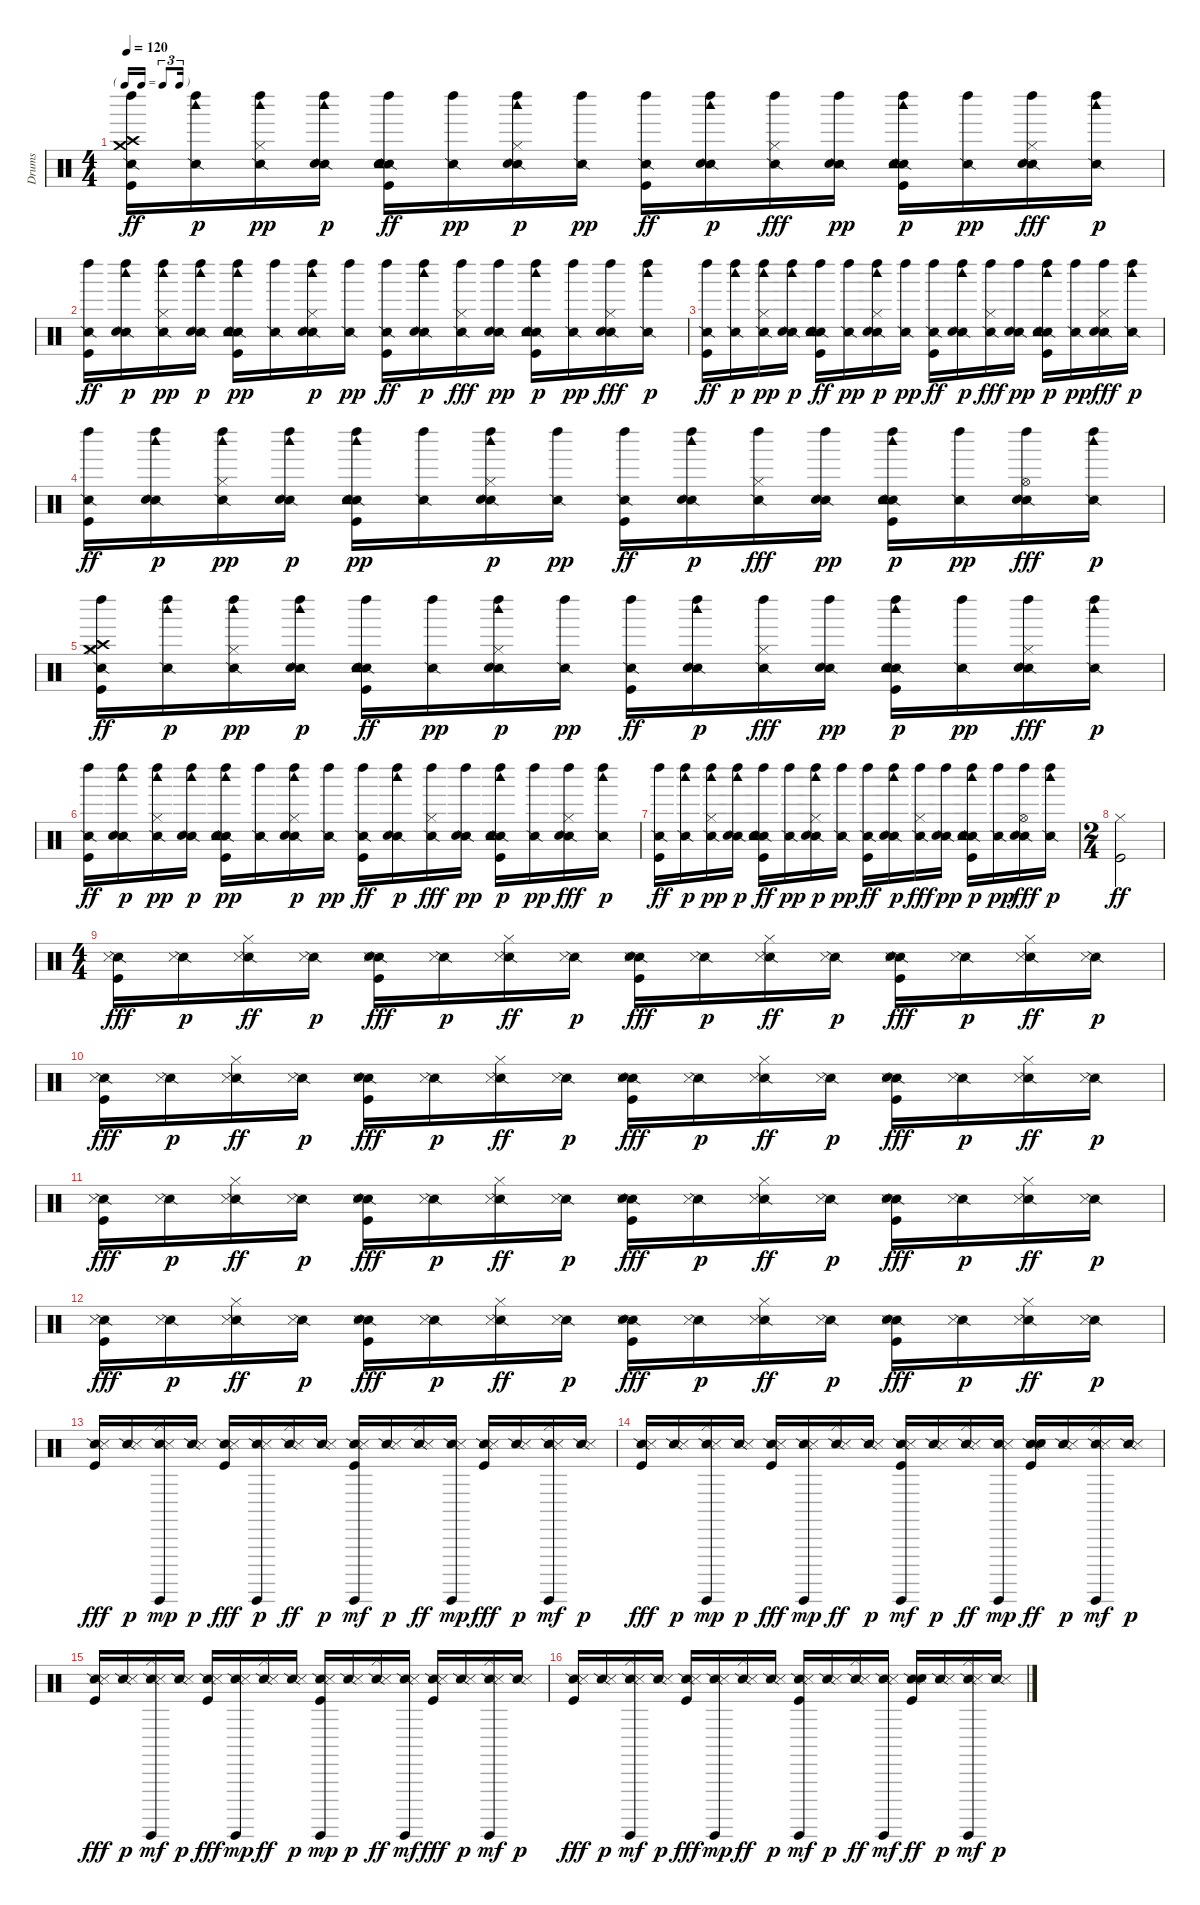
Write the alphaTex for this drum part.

\track ("Drums" "Drums") {instrument percussion}
\staff {score}
\articulation defaults
\ts (4 4)
\tf triplet16th
\tempo 120
\clef neutral
\ks c
("Snare (side stick) 2" "Kick (hit)" "Crash high (hit)" "Crash medium (hit)" "Left Maraca (hit)").16{dy ff} ("Snare (side stick) 2" "Left Maraca (hit)" "Woodblock high (hit)").16{dy p} ("Snare (side stick) 2" "Hi-Hat (closed)" "Left Maraca (hit)" "Woodblock high (hit)").16{dy pp} ("Snare (side stick) 2" "Hand Clap (hit)" "Left Maraca (hit)" "Woodblock high (hit)").16{dy p} ("Snare (side stick) 2" "Kick (hit)" "Hand Clap (hit)" "Electric Snare (hit)" "Tambourine (hit)" "Left Maraca (hit)").16{dy ff} ("Snare (side stick) 2" "Left Maraca (hit)").16{dy pp} ("Snare (side stick) 2" "Hand Clap (hit)" "Hi-Hat (closed)" "Left Maraca (hit)" "Woodblock high (hit)").16{dy p} ("Snare (side stick) 2" "Left Maraca (hit)").16{dy pp} ("Snare (side stick) 2" "Kick (hit)" "Left Maraca (hit)").16{dy ff} ("Snare (side stick) 2" "Hand Clap (hit)" "Left Maraca (hit)" "Woodblock high (hit)").16{dy p} ("Snare (side stick) 2" "Hi-Hat (closed)" "Left Maraca (hit)").16{dy fff} ("Snare (side stick) 2" "Hand Clap (hit)" "Left Maraca (hit)").16{dy pp} ("Snare (side stick) 2" "Kick (hit)" "Electric Snare (hit)" "Tambourine (hit)" "Left Maraca (hit)" "Woodblock high (hit)").16{dy p} ("Snare (side stick) 2" "Left Maraca (hit)").16{dy pp} ("Snare (side stick) 2" "Hand Clap (hit)" "Hi-Hat (closed)" "Left Maraca (hit)").16{dy fff} ("Snare (side stick) 2" "Left Maraca (hit)" "Woodblock high (hit)").16{dy p} |
("Snare (side stick) 2" "Kick (hit)" "Left Maraca (hit)").16{dy ff} ("Snare (side stick) 2" "Hand Clap (hit)" "Left Maraca (hit)" "Woodblock high (hit)").16{dy p} ("Snare (side stick) 2" "Hi-Hat (closed)" "Left Maraca (hit)" "Woodblock high (hit)").16{dy pp} ("Snare (side stick) 2" "Hand Clap (hit)" "Left Maraca (hit)" "Woodblock high (hit)").16{dy p} ("Snare (side stick) 2" "Kick (hit)" "Electric Snare (hit)" "Tambourine (hit)" "Left Maraca (hit)" "Woodblock high (hit)").16{dy pp} ("Snare (side stick) 2" "Left Maraca (hit)").16 ("Snare (side stick) 2" "Hand Clap (hit)" "Hi-Hat (closed)" "Left Maraca (hit)" "Woodblock high (hit)").16{dy p} ("Snare (side stick) 2" "Left Maraca (hit)").16{dy pp} ("Snare (side stick) 2" "Kick (hit)" "Left Maraca (hit)").16{dy ff} ("Snare (side stick) 2" "Hand Clap (hit)" "Left Maraca (hit)" "Woodblock high (hit)").16{dy p} ("Snare (side stick) 2" "Hi-Hat (closed)" "Left Maraca (hit)").16{dy fff} ("Snare (side stick) 2" "Hand Clap (hit)" "Left Maraca (hit)").16{dy pp} ("Snare (side stick) 2" "Kick (hit)" "Electric Snare (hit)" "Tambourine (hit)" "Left Maraca (hit)" "Woodblock high (hit)").16{dy p} ("Snare (side stick) 2" "Left Maraca (hit)").16{dy pp} ("Snare (side stick) 2" "Hand Clap (hit)" "Hi-Hat (closed)" "Left Maraca (hit)").16{dy fff} ("Snare (side stick) 2" "Left Maraca (hit)" "Woodblock high (hit)").16{dy p} |
("Snare (side stick) 2" "Kick (hit)" "Left Maraca (hit)").16{dy ff} ("Snare (side stick) 2" "Left Maraca (hit)" "Woodblock high (hit)").16{dy p} ("Snare (side stick) 2" "Hi-Hat (closed)" "Left Maraca (hit)" "Woodblock high (hit)").16{dy pp} ("Snare (side stick) 2" "Hand Clap (hit)" "Left Maraca (hit)" "Woodblock high (hit)").16{dy p} ("Snare (side stick) 2" "Kick (hit)" "Hand Clap (hit)" "Electric Snare (hit)" "Tambourine (hit)" "Left Maraca (hit)").16{dy ff} ("Snare (side stick) 2" "Left Maraca (hit)").16{dy pp} ("Snare (side stick) 2" "Hand Clap (hit)" "Hi-Hat (closed)" "Left Maraca (hit)" "Woodblock high (hit)").16{dy p} ("Snare (side stick) 2" "Left Maraca (hit)").16{dy pp} ("Snare (side stick) 2" "Kick (hit)" "Left Maraca (hit)").16{dy ff} ("Snare (side stick) 2" "Hand Clap (hit)" "Left Maraca (hit)" "Woodblock high (hit)").16{dy p} ("Snare (side stick) 2" "Hi-Hat (closed)" "Left Maraca (hit)").16{dy fff} ("Snare (side stick) 2" "Hand Clap (hit)" "Left Maraca (hit)").16{dy pp} ("Snare (side stick) 2" "Kick (hit)" "Electric Snare (hit)" "Tambourine (hit)" "Left Maraca (hit)" "Woodblock high (hit)").16{dy p} ("Snare (side stick) 2" "Left Maraca (hit)").16{dy pp} ("Snare (side stick) 2" "Hand Clap (hit)" "Hi-Hat (closed)" "Left Maraca (hit)").16{dy fff} ("Snare (side stick) 2" "Left Maraca (hit)" "Woodblock high (hit)").16{dy p} |
("Snare (side stick) 2" "Kick (hit)" "Left Maraca (hit)").16{dy ff} ("Snare (side stick) 2" "Hand Clap (hit)" "Left Maraca (hit)" "Woodblock high (hit)").16{dy p} ("Snare (side stick) 2" "Hi-Hat (closed)" "Left Maraca (hit)" "Woodblock high (hit)").16{dy pp} ("Snare (side stick) 2" "Hand Clap (hit)" "Left Maraca (hit)" "Woodblock high (hit)").16{dy p} ("Snare (side stick) 2" "Kick (hit)" "Electric Snare (hit)" "Tambourine (hit)" "Left Maraca (hit)" "Woodblock high (hit)").16{dy pp} ("Snare (side stick) 2" "Left Maraca (hit)").16 ("Snare (side stick) 2" "Hand Clap (hit)" "Hi-Hat (closed)" "Left Maraca (hit)" "Woodblock high (hit)").16{dy p} ("Snare (side stick) 2" "Left Maraca (hit)").16{dy pp} ("Snare (side stick) 2" "Kick (hit)" "Left Maraca (hit)").16{dy ff} ("Snare (side stick) 2" "Hand Clap (hit)" "Left Maraca (hit)" "Woodblock high (hit)").16{dy p} ("Snare (side stick) 2" "Hi-Hat (closed)" "Left Maraca (hit)").16{dy fff} ("Snare (side stick) 2" "Hand Clap (hit)" "Left Maraca (hit)").16{dy pp} ("Snare (side stick) 2" "Kick (hit)" "Electric Snare (hit)" "Tambourine (hit)" "Left Maraca (hit)" "Woodblock high (hit)").16{dy p} ("Snare (side stick) 2" "Left Maraca (hit)").16{dy pp} ("Snare (side stick) 2" "Hand Clap (hit)" "Hi-Hat (open)" "Left Maraca (hit)").16{dy fff} ("Snare (side stick) 2" "Left Maraca (hit)" "Woodblock high (hit)").16{dy p} |
("Snare (side stick) 2" "Kick (hit)" "Hi-Hat (closed)" "Crash high (hit)" "Crash medium (hit)" "Left Maraca (hit)").16{dy ff} ("Snare (side stick) 2" "Left Maraca (hit)" "Woodblock high (hit)").16{dy p} ("Snare (side stick) 2" "Hi-Hat (closed)" "Left Maraca (hit)" "Woodblock high (hit)").16{dy pp} ("Snare (side stick) 2" "Hand Clap (hit)" "Left Maraca (hit)" "Woodblock high (hit)").16{dy p} ("Snare (side stick) 2" "Kick (hit)" "Hand Clap (hit)" "Electric Snare (hit)" "Tambourine (hit)" "Left Maraca (hit)").16{dy ff} ("Snare (side stick) 2" "Left Maraca (hit)").16{dy pp} ("Snare (side stick) 2" "Hand Clap (hit)" "Hi-Hat (closed)" "Left Maraca (hit)" "Woodblock high (hit)").16{dy p} ("Snare (side stick) 2" "Left Maraca (hit)").16{dy pp} ("Snare (side stick) 2" "Kick (hit)" "Left Maraca (hit)").16{dy ff} ("Snare (side stick) 2" "Hand Clap (hit)" "Left Maraca (hit)" "Woodblock high (hit)").16{dy p} ("Snare (side stick) 2" "Hi-Hat (closed)" "Left Maraca (hit)").16{dy fff} ("Snare (side stick) 2" "Hand Clap (hit)" "Left Maraca (hit)").16{dy pp} ("Snare (side stick) 2" "Kick (hit)" "Electric Snare (hit)" "Tambourine (hit)" "Left Maraca (hit)" "Woodblock high (hit)").16{dy p} ("Snare (side stick) 2" "Left Maraca (hit)").16{dy pp} ("Snare (side stick) 2" "Hand Clap (hit)" "Hi-Hat (closed)" "Left Maraca (hit)").16{dy fff} ("Snare (side stick) 2" "Left Maraca (hit)" "Woodblock high (hit)").16{dy p} |
("Snare (side stick) 2" "Kick (hit)" "Left Maraca (hit)").16{dy ff} ("Snare (side stick) 2" "Hand Clap (hit)" "Left Maraca (hit)" "Woodblock high (hit)").16{dy p} ("Snare (side stick) 2" "Hi-Hat (closed)" "Left Maraca (hit)" "Woodblock high (hit)").16{dy pp} ("Snare (side stick) 2" "Hand Clap (hit)" "Left Maraca (hit)" "Woodblock high (hit)").16{dy p} ("Snare (side stick) 2" "Kick (hit)" "Electric Snare (hit)" "Tambourine (hit)" "Left Maraca (hit)" "Woodblock high (hit)").16{dy pp} ("Snare (side stick) 2" "Left Maraca (hit)").16 ("Snare (side stick) 2" "Hand Clap (hit)" "Hi-Hat (closed)" "Left Maraca (hit)" "Woodblock high (hit)").16{dy p} ("Snare (side stick) 2" "Left Maraca (hit)").16{dy pp} ("Snare (side stick) 2" "Kick (hit)" "Left Maraca (hit)").16{dy ff} ("Snare (side stick) 2" "Hand Clap (hit)" "Left Maraca (hit)" "Woodblock high (hit)").16{dy p} ("Snare (side stick) 2" "Hi-Hat (closed)" "Left Maraca (hit)").16{dy fff} ("Snare (side stick) 2" "Hand Clap (hit)" "Left Maraca (hit)").16{dy pp} ("Snare (side stick) 2" "Kick (hit)" "Electric Snare (hit)" "Tambourine (hit)" "Left Maraca (hit)" "Woodblock high (hit)").16{dy p} ("Snare (side stick) 2" "Left Maraca (hit)").16{dy pp} ("Snare (side stick) 2" "Hand Clap (hit)" "Hi-Hat (closed)" "Left Maraca (hit)").16{dy fff} ("Snare (side stick) 2" "Left Maraca (hit)" "Woodblock high (hit)").16{dy p} |
("Snare (side stick) 2" "Kick (hit)" "Left Maraca (hit)").16{dy ff} ("Snare (side stick) 2" "Left Maraca (hit)" "Woodblock high (hit)").16{dy p} ("Snare (side stick) 2" "Hi-Hat (closed)" "Left Maraca (hit)" "Woodblock high (hit)").16{dy pp} ("Snare (side stick) 2" "Hand Clap (hit)" "Left Maraca (hit)" "Woodblock high (hit)").16{dy p} ("Snare (side stick) 2" "Kick (hit)" "Hand Clap (hit)" "Electric Snare (hit)" "Tambourine (hit)" "Left Maraca (hit)").16{dy ff} ("Snare (side stick) 2" "Left Maraca (hit)").16{dy pp} ("Snare (side stick) 2" "Hand Clap (hit)" "Hi-Hat (closed)" "Left Maraca (hit)" "Woodblock high (hit)").16{dy p} ("Snare (side stick) 2" "Left Maraca (hit)").16{dy pp} ("Snare (side stick) 2" "Kick (hit)" "Left Maraca (hit)").16{dy ff} ("Snare (side stick) 2" "Hand Clap (hit)" "Left Maraca (hit)" "Woodblock high (hit)").16{dy p} ("Snare (side stick) 2" "Hi-Hat (closed)" "Left Maraca (hit)").16{dy fff} ("Snare (side stick) 2" "Hand Clap (hit)" "Left Maraca (hit)").16{dy pp} ("Snare (side stick) 2" "Kick (hit)" "Electric Snare (hit)" "Tambourine (hit)" "Left Maraca (hit)" "Woodblock high (hit)").16{dy p} ("Snare (side stick) 2" "Left Maraca (hit)").16{dy pp} ("Snare (side stick) 2" "Hand Clap (hit)" "Hi-Hat (open)" "Left Maraca (hit)").16{dy fff} ("Snare (side stick) 2" "Left Maraca (hit)" "Woodblock high (hit)").16{dy p} |
\ts (2 4)
("Kick (hit)" "Hi-Hat (closed)").2{dy ff} |
\ts (4 4)
("Snare (side stick) 2" "Metronome (hit)" "Kick (hit)").16{dy fff} ("Snare (side stick) 2" "Metronome (hit)").16{dy p} ("Snare (side stick) 2" "Metronome (hit)" "Hi-Hat (closed)").16{dy ff} ("Snare (side stick) 2" "Metronome (hit)").16{dy p} ("Snare (side stick) 2" "Metronome (hit)" "Kick (hit)" "Hand Clap (hit)").16{dy fff} ("Snare (side stick) 2" "Metronome (hit)").16{dy p} ("Snare (side stick) 2" "Metronome (hit)" "Hi-Hat (closed)").16{dy ff} ("Snare (side stick) 2" "Metronome (hit)").16{dy p} ("Snare (side stick) 2" "Metronome (hit)" "Kick (hit)" "Hand Clap (hit)").16{dy fff} ("Snare (side stick) 2" "Metronome (hit)").16{dy p} ("Snare (side stick) 2" "Metronome (hit)" "Hi-Hat (closed)").16{dy ff} ("Snare (side stick) 2" "Metronome (hit)").16{dy p} ("Snare (side stick) 2" "Metronome (hit)" "Kick (hit)" "Hand Clap (hit)").16{dy fff} ("Snare (side stick) 2" "Metronome (hit)").16{dy p} ("Snare (side stick) 2" "Metronome (hit)" "Hi-Hat (closed)").16{dy ff} ("Snare (side stick) 2" "Metronome (hit)").16{dy p} |
("Snare (side stick) 2" "Metronome (hit)" "Kick (hit)").16{dy fff} ("Snare (side stick) 2" "Metronome (hit)").16{dy p} ("Snare (side stick) 2" "Metronome (hit)" "Hi-Hat (closed)").16{dy ff} ("Snare (side stick) 2" "Metronome (hit)").16{dy p} ("Snare (side stick) 2" "Metronome (hit)" "Kick (hit)" "Hand Clap (hit)").16{dy fff} ("Snare (side stick) 2" "Metronome (hit)").16{dy p} ("Snare (side stick) 2" "Metronome (hit)" "Hi-Hat (closed)").16{dy ff} ("Snare (side stick) 2" "Metronome (hit)").16{dy p} ("Snare (side stick) 2" "Metronome (hit)" "Kick (hit)" "Hand Clap (hit)").16{dy fff} ("Snare (side stick) 2" "Metronome (hit)").16{dy p} ("Snare (side stick) 2" "Metronome (hit)" "Hi-Hat (closed)").16{dy ff} ("Snare (side stick) 2" "Metronome (hit)").16{dy p} ("Snare (side stick) 2" "Metronome (hit)" "Kick (hit)" "Hand Clap (hit)").16{dy fff} ("Snare (side stick) 2" "Metronome (hit)").16{dy p} ("Snare (side stick) 2" "Metronome (hit)" "Hi-Hat (closed)").16{dy ff} ("Snare (side stick) 2" "Metronome (hit)").16{dy p} |
("Snare (side stick) 2" "Metronome (hit)" "Kick (hit)").16{dy fff} ("Snare (side stick) 2" "Metronome (hit)").16{dy p} ("Snare (side stick) 2" "Metronome (hit)" "Hi-Hat (closed)").16{dy ff} ("Snare (side stick) 2" "Metronome (hit)").16{dy p} ("Snare (side stick) 2" "Metronome (hit)" "Kick (hit)" "Hand Clap (hit)").16{dy fff} ("Snare (side stick) 2" "Metronome (hit)").16{dy p} ("Snare (side stick) 2" "Metronome (hit)" "Hi-Hat (closed)").16{dy ff} ("Snare (side stick) 2" "Metronome (hit)").16{dy p} ("Snare (side stick) 2" "Metronome (hit)" "Kick (hit)" "Hand Clap (hit)").16{dy fff} ("Snare (side stick) 2" "Metronome (hit)").16{dy p} ("Snare (side stick) 2" "Metronome (hit)" "Hi-Hat (closed)").16{dy ff} ("Snare (side stick) 2" "Metronome (hit)").16{dy p} ("Snare (side stick) 2" "Metronome (hit)" "Kick (hit)" "Hand Clap (hit)").16{dy fff} ("Snare (side stick) 2" "Metronome (hit)").16{dy p} ("Snare (side stick) 2" "Metronome (hit)" "Hi-Hat (closed)").16{dy ff} ("Snare (side stick) 2" "Metronome (hit)").16{dy p} |
("Snare (side stick) 2" "Metronome (hit)" "Kick (hit)").16{dy fff} ("Snare (side stick) 2" "Metronome (hit)").16{dy p} ("Snare (side stick) 2" "Metronome (hit)" "Hi-Hat (closed)").16{dy ff} ("Snare (side stick) 2" "Metronome (hit)").16{dy p} ("Snare (side stick) 2" "Metronome (hit)" "Kick (hit)" "Hand Clap (hit)").16{dy fff} ("Snare (side stick) 2" "Metronome (hit)").16{dy p} ("Snare (side stick) 2" "Metronome (hit)" "Hi-Hat (closed)").16{dy ff} ("Snare (side stick) 2" "Metronome (hit)").16{dy p} ("Snare (side stick) 2" "Metronome (hit)" "Kick (hit)" "Hand Clap (hit)").16{dy fff} ("Snare (side stick) 2" "Metronome (hit)").16{dy p} ("Snare (side stick) 2" "Metronome (hit)" "Hi-Hat (closed)").16{dy ff} ("Snare (side stick) 2" "Metronome (hit)").16{dy p} ("Snare (side stick) 2" "Metronome (hit)" "Kick (hit)" "Hand Clap (hit)").16{dy fff} ("Snare (side stick) 2" "Metronome (hit)").16{dy p} ("Snare (side stick) 2" "Metronome (hit)" "Hi-Hat (closed)").16{dy ff} ("Snare (side stick) 2" "Metronome (hit)").16{dy p} |
("Snare (side stick) 2" "Metronome (hit)" "Kick (hit)").16{dy fff} ("Snare (side stick) 2" "Metronome (hit)").16{dy p} ("Snare (side stick) 2" "Metronome (hit)" "Hi-Hat (closed)" "Guiro (hit)").16{dy mp} ("Snare (side stick) 2" "Metronome (hit)").16{dy p} ("Snare (side stick) 2" "Metronome (hit)" "Kick (hit)").16{dy fff} ("Snare (side stick) 2" "Metronome (hit)" "Guiro (hit)").16{dy p} ("Snare (side stick) 2" "Metronome (hit)" "Hi-Hat (closed)").16{dy ff} ("Snare (side stick) 2" "Metronome (hit)").16{dy p} ("Snare (side stick) 2" "Metronome (hit)" "Kick (hit)" "Guiro (hit)").16{dy mf} ("Snare (side stick) 2" "Metronome (hit)").16{dy p} ("Snare (side stick) 2" "Metronome (hit)" "Hi-Hat (closed)").16{dy ff} ("Snare (side stick) 2" "Metronome (hit)" "Guiro (hit)").16{dy mp} ("Snare (side stick) 2" "Metronome (hit)" "Kick (hit)").16{dy fff} ("Snare (side stick) 2" "Metronome (hit)").16{dy p} ("Snare (side stick) 2" "Metronome (hit)" "Hi-Hat (closed)" "Guiro (hit)").16{dy mf} ("Snare (side stick) 2" "Metronome (hit)").16{dy p} |
("Snare (side stick) 2" "Metronome (hit)" "Kick (hit)").16{dy fff} ("Snare (side stick) 2" "Metronome (hit)").16{dy p} ("Snare (side stick) 2" "Metronome (hit)" "Hi-Hat (closed)" "Guiro (hit)").16{dy mp} ("Snare (side stick) 2" "Metronome (hit)").16{dy p} ("Snare (side stick) 2" "Metronome (hit)" "Kick (hit)").16{dy fff} ("Snare (side stick) 2" "Metronome (hit)" "Guiro (hit)").16{dy mp} ("Snare (side stick) 2" "Metronome (hit)" "Hi-Hat (closed)").16{dy ff} ("Snare (side stick) 2" "Metronome (hit)").16{dy p} ("Snare (side stick) 2" "Metronome (hit)" "Kick (hit)" "Guiro (hit)").16{dy mf} ("Snare (side stick) 2" "Metronome (hit)").16{dy p} ("Snare (side stick) 2" "Metronome (hit)" "Hi-Hat (closed)").16{dy ff} ("Snare (side stick) 2" "Metronome (hit)" "Guiro (hit)").16{dy mp} ("Snare (side stick) 2" "Metronome (hit)" "Kick (hit)" "Electric Snare (hit)").16{dy ff} ("Snare (side stick) 2" "Metronome (hit)").16{dy p} ("Snare (side stick) 2" "Metronome (hit)" "Hi-Hat (closed)" "Guiro (hit)").16{dy mf} ("Snare (side stick) 2" "Metronome (hit)").16{dy p} |
("Snare (side stick) 2" "Metronome (hit)" "Kick (hit)").16{dy fff} ("Snare (side stick) 2" "Metronome (hit)").16{dy p} ("Snare (side stick) 2" "Metronome (hit)" "Hi-Hat (closed)" "Guiro (hit)").16{dy mf} ("Snare (side stick) 2" "Metronome (hit)").16{dy p} ("Snare (side stick) 2" "Metronome (hit)" "Kick (hit)").16{dy fff} ("Snare (side stick) 2" "Metronome (hit)" "Guiro (hit)").16{dy mp} ("Snare (side stick) 2" "Metronome (hit)" "Hi-Hat (closed)").16{dy ff} ("Snare (side stick) 2" "Metronome (hit)").16{dy p} ("Snare (side stick) 2" "Metronome (hit)" "Kick (hit)" "Guiro (hit)").16{dy mp} ("Snare (side stick) 2" "Metronome (hit)").16{dy p} ("Snare (side stick) 2" "Metronome (hit)" "Hi-Hat (closed)").16{dy ff} ("Snare (side stick) 2" "Metronome (hit)" "Guiro (hit)").16{dy mf} ("Snare (side stick) 2" "Metronome (hit)" "Kick (hit)").16{dy fff} ("Snare (side stick) 2" "Metronome (hit)").16{dy p} ("Snare (side stick) 2" "Metronome (hit)" "Hi-Hat (closed)" "Guiro (hit)").16{dy mf} ("Snare (side stick) 2" "Metronome (hit)").16{dy p} |
("Snare (side stick) 2" "Metronome (hit)" "Kick (hit)").16{dy fff} ("Snare (side stick) 2" "Metronome (hit)").16{dy p} ("Snare (side stick) 2" "Metronome (hit)" "Hi-Hat (closed)" "Guiro (hit)").16{dy mf} ("Snare (side stick) 2" "Metronome (hit)").16{dy p} ("Snare (side stick) 2" "Metronome (hit)" "Kick (hit)").16{dy fff} ("Snare (side stick) 2" "Metronome (hit)" "Guiro (hit)").16{dy mp} ("Snare (side stick) 2" "Metronome (hit)" "Hi-Hat (closed)").16{dy ff} ("Snare (side stick) 2" "Metronome (hit)").16{dy p} ("Snare (side stick) 2" "Metronome (hit)" "Kick (hit)" "Guiro (hit)").16{dy mf} ("Snare (side stick) 2" "Metronome (hit)").16{dy p} ("Snare (side stick) 2" "Metronome (hit)" "Hi-Hat (closed)").16{dy ff} ("Snare (side stick) 2" "Metronome (hit)" "Guiro (hit)").16{dy mf} ("Snare (side stick) 2" "Metronome (hit)" "Kick (hit)" "Electric Snare (hit)").16{dy ff} ("Snare (side stick) 2" "Metronome (hit)").16{dy p} ("Snare (side stick) 2" "Metronome (hit)" "Hi-Hat (closed)" "Guiro (hit)").16{dy mf} ("Snare (side stick) 2" "Metronome (hit)").16{dy p}
